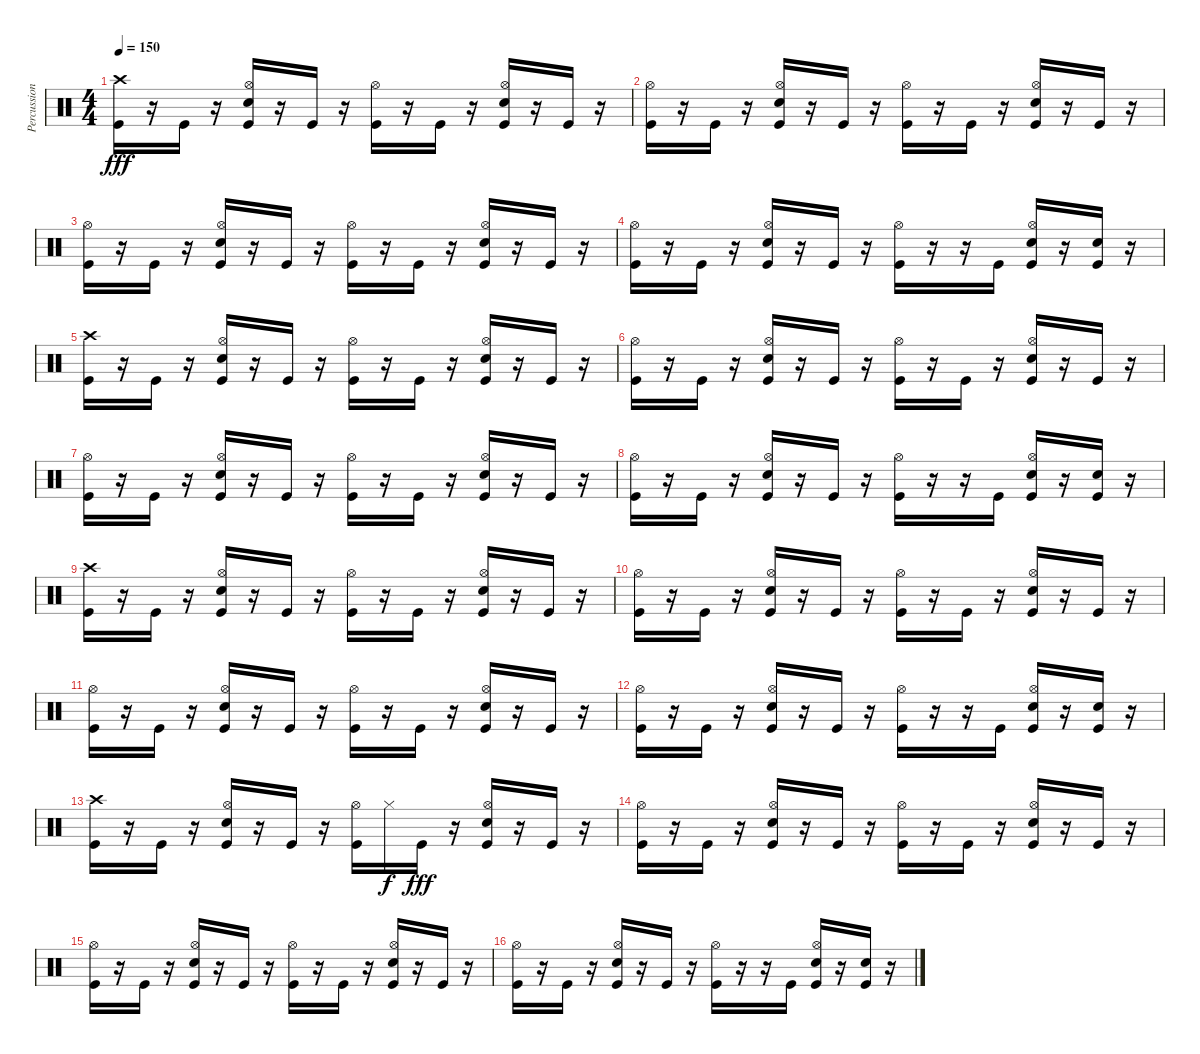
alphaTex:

\track ("Percussion" "Percussion") {instrument percussion}
\staff {score}
\articulation defaults
\ts (4 4)
\tempo 150
\clef neutral
\ks c
("Crash high (hit)" "Kick (hit)").16{dy fff} r.16 "Kick (hit)".16 r.16 ("Hi-Hat (open)" "Snare (hit) 2" "Kick (hit)").16 r.16 "Kick (hit)".16 r.16 ("Hi-Hat (open)" "Kick (hit)").16 r.16 "Kick (hit)".16 r.16 ("Hi-Hat (open)" "Snare (hit) 2" "Kick (hit)").16 r.16 "Kick (hit)".16 r.16 |
("Hi-Hat (open)" "Kick (hit)").16 r.16 "Kick (hit)".16 r.16 ("Hi-Hat (open)" "Snare (hit) 2" "Kick (hit)").16 r.16 "Kick (hit)".16 r.16 ("Hi-Hat (open)" "Kick (hit)").16 r.16 "Kick (hit)".16 r.16 ("Hi-Hat (open)" "Snare (hit) 2" "Kick (hit)").16 r.16 "Kick (hit)".16 r.16 |
("Hi-Hat (open)" "Kick (hit)").16 r.16 "Kick (hit)".16 r.16 ("Hi-Hat (open)" "Snare (hit) 2" "Kick (hit)").16 r.16 "Kick (hit)".16 r.16 ("Hi-Hat (open)" "Kick (hit)").16 r.16 "Kick (hit)".16 r.16 ("Hi-Hat (open)" "Snare (hit) 2" "Kick (hit)").16 r.16 "Kick (hit)".16 r.16 |
("Hi-Hat (open)" "Kick (hit)").16 r.16 "Kick (hit)".16 r.16 ("Hi-Hat (open)" "Snare (hit) 2" "Kick (hit)").16 r.16 "Kick (hit)".16 r.16 ("Hi-Hat (open)" "Kick (hit)").16 r.16 r.16 "Kick (hit)".16 ("Hi-Hat (open)" "Snare (hit) 2" "Kick (hit)").16 r.16 ("Snare (hit) 2" "Kick (hit)").16 r.16 |
("Crash high (hit)" "Kick (hit)").16 r.16 "Kick (hit)".16 r.16 ("Hi-Hat (open)" "Snare (hit) 2" "Kick (hit)").16 r.16 "Kick (hit)".16 r.16 ("Hi-Hat (open)" "Kick (hit)").16 r.16 "Kick (hit)".16 r.16 ("Hi-Hat (open)" "Snare (hit) 2" "Kick (hit)").16 r.16 "Kick (hit)".16 r.16 |
("Hi-Hat (open)" "Kick (hit)").16 r.16 "Kick (hit)".16 r.16 ("Hi-Hat (open)" "Snare (hit) 2" "Kick (hit)").16 r.16 "Kick (hit)".16 r.16 ("Hi-Hat (open)" "Kick (hit)").16 r.16 "Kick (hit)".16 r.16 ("Hi-Hat (open)" "Snare (hit) 2" "Kick (hit)").16 r.16 "Kick (hit)".16 r.16 |
("Hi-Hat (open)" "Kick (hit)").16 r.16 "Kick (hit)".16 r.16 ("Hi-Hat (open)" "Snare (hit) 2" "Kick (hit)").16 r.16 "Kick (hit)".16 r.16 ("Hi-Hat (open)" "Kick (hit)").16 r.16 "Kick (hit)".16 r.16 ("Hi-Hat (open)" "Snare (hit) 2" "Kick (hit)").16 r.16 "Kick (hit)".16 r.16 |
("Hi-Hat (open)" "Kick (hit)").16 r.16 "Kick (hit)".16 r.16 ("Hi-Hat (open)" "Snare (hit) 2" "Kick (hit)").16 r.16 "Kick (hit)".16 r.16 ("Hi-Hat (open)" "Kick (hit)").16 r.16 r.16 "Kick (hit)".16 ("Hi-Hat (open)" "Snare (hit) 2" "Kick (hit)").16 r.16 ("Snare (hit) 2" "Kick (hit)").16 r.16 |
("Crash high (hit)" "Kick (hit)").16 r.16 "Kick (hit)".16 r.16 ("Hi-Hat (open)" "Snare (hit) 2" "Kick (hit)").16 r.16 "Kick (hit)".16 r.16 ("Hi-Hat (open)" "Kick (hit)").16 r.16 "Kick (hit)".16 r.16 ("Hi-Hat (open)" "Snare (hit) 2" "Kick (hit)").16 r.16 "Kick (hit)".16 r.16 |
("Hi-Hat (open)" "Kick (hit)").16 r.16 "Kick (hit)".16 r.16 ("Hi-Hat (open)" "Snare (hit) 2" "Kick (hit)").16 r.16 "Kick (hit)".16 r.16 ("Hi-Hat (open)" "Kick (hit)").16 r.16 "Kick (hit)".16 r.16 ("Hi-Hat (open)" "Snare (hit) 2" "Kick (hit)").16 r.16 "Kick (hit)".16 r.16 |
("Hi-Hat (open)" "Kick (hit)").16 r.16 "Kick (hit)".16 r.16 ("Hi-Hat (open)" "Snare (hit) 2" "Kick (hit)").16 r.16 "Kick (hit)".16 r.16 ("Hi-Hat (open)" "Kick (hit)").16 r.16 "Kick (hit)".16 r.16 ("Hi-Hat (open)" "Snare (hit) 2" "Kick (hit)").16 r.16 "Kick (hit)".16 r.16 |
("Hi-Hat (open)" "Kick (hit)").16 r.16 "Kick (hit)".16 r.16 ("Hi-Hat (open)" "Snare (hit) 2" "Kick (hit)").16 r.16 "Kick (hit)".16 r.16 ("Hi-Hat (open)" "Kick (hit)").16 r.16 r.16 "Kick (hit)".16 ("Hi-Hat (open)" "Snare (hit) 2" "Kick (hit)").16 r.16 ("Snare (hit) 2" "Kick (hit)").16 r.16 |
("Crash high (hit)" "Kick (hit)").16 r.16 "Kick (hit)".16 r.16 ("Hi-Hat (open)" "Snare (hit) 2" "Kick (hit)").16 r.16 "Kick (hit)".16 r.16 ("Hi-Hat (open)" "Kick (hit)").16 "Hi-Hat (closed)".16{dy f} "Kick (hit)".16{dy fff} r.16 ("Hi-Hat (open)" "Snare (hit) 2" "Kick (hit)").16 r.16 "Kick (hit)".16 r.16 |
("Hi-Hat (open)" "Kick (hit)").16 r.16 "Kick (hit)".16 r.16 ("Hi-Hat (open)" "Snare (hit) 2" "Kick (hit)").16 r.16 "Kick (hit)".16 r.16 ("Hi-Hat (open)" "Kick (hit)").16 r.16 "Kick (hit)".16 r.16 ("Hi-Hat (open)" "Snare (hit) 2" "Kick (hit)").16 r.16 "Kick (hit)".16 r.16 |
("Hi-Hat (open)" "Kick (hit)").16 r.16 "Kick (hit)".16 r.16 ("Hi-Hat (open)" "Snare (hit) 2" "Kick (hit)").16 r.16 "Kick (hit)".16 r.16 ("Hi-Hat (open)" "Kick (hit)").16 r.16 "Kick (hit)".16 r.16 ("Hi-Hat (open)" "Snare (hit) 2" "Kick (hit)").16 r.16 "Kick (hit)".16 r.16 |
("Hi-Hat (open)" "Kick (hit)").16 r.16 "Kick (hit)".16 r.16 ("Hi-Hat (open)" "Snare (hit) 2" "Kick (hit)").16 r.16 "Kick (hit)".16 r.16 ("Hi-Hat (open)" "Kick (hit)").16 r.16 r.16 "Kick (hit)".16 ("Hi-Hat (open)" "Snare (hit) 2" "Kick (hit)").16 r.16 ("Snare (hit) 2" "Kick (hit)").16 r.16
